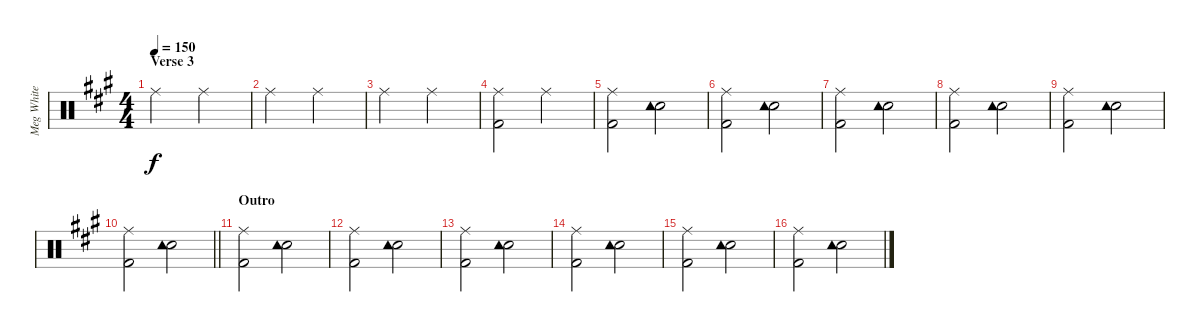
\track ("Meg White Drums" "Meg White ") {instrument percussion}
\staff {score}
\articulation defaults
\ts (4 4)
\section ("" "Verse 3")
\tempo 150
\clef neutral
\ks a "Ride (middle)".2{dy f} "Ride (middle)".2
|
"Ride (middle)".2 "Ride (middle)".2 |
"Ride (middle)".2 "Ride (middle)".2 |
("Ride (middle)" "Kick (hit) 2").2 "Ride (middle)".2 |
("Ride (middle)" "Kick (hit) 2").2 ("Snare (hit) 2" "Tambourine (hit)").2 |
("Ride (middle)" "Kick (hit) 2").2 ("Snare (hit) 2" "Tambourine (hit)").2 |
("Ride (middle)" "Kick (hit) 2").2 ("Snare (hit) 2" "Tambourine (hit)").2 |
("Ride (middle)" "Kick (hit) 2").2 ("Snare (hit) 2" "Tambourine (hit)").2 |
("Ride (middle)" "Kick (hit) 2").2 ("Snare (hit) 2" "Tambourine (hit)").2 |
\barLineRight lightlight
("Ride (middle)" "Kick (hit) 2").2 ("Snare (hit) 2" "Tambourine (hit)").2 |
\section ("" "Outro")
("Ride (middle)" "Kick (hit) 2").2 ("Snare (hit) 2" "Tambourine (hit)").2 |
("Ride (middle)" "Kick (hit) 2").2 ("Snare (hit) 2" "Tambourine (hit)").2 |
("Ride (middle)" "Kick (hit) 2").2 ("Snare (hit) 2" "Tambourine (hit)").2 |
("Ride (middle)" "Kick (hit) 2").2 ("Snare (hit) 2" "Tambourine (hit)").2 |
("Ride (middle)" "Kick (hit) 2").2 ("Snare (hit) 2" "Tambourine (hit)").2 |
("Ride (middle)" "Kick (hit) 2").2 ("Snare (hit) 2" "Tambourine (hit)").2
